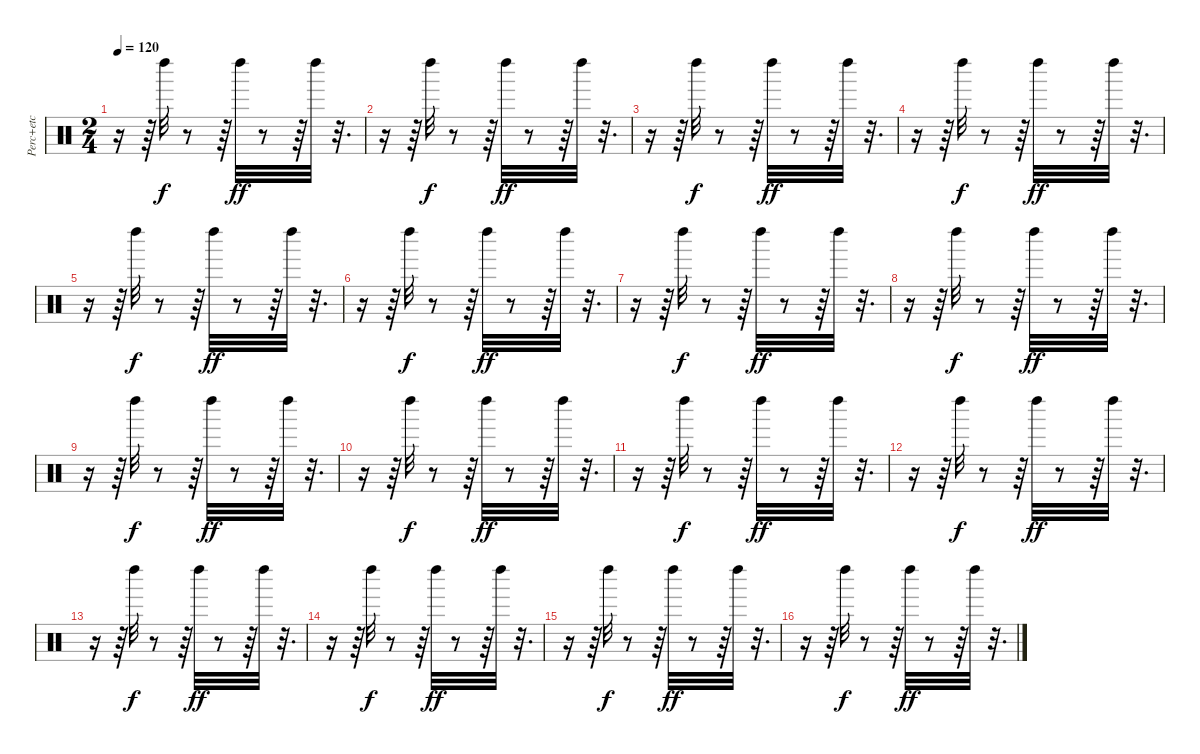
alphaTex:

\track ("Perc+etc" "Perc+etc") {instrument percussion}
\staff {score}
\articulation defaults
\ts (2 4)
\tempo 120
\clef neutral
\ks c
r.16{dy ff} r.64 "Left Maraca (hit)".32{dy f} r.8 r.64 "Left Maraca (hit)".32{dy ff} r.8 r.64 "Left Maraca (hit)".32 r.32{d} |
r.16 r.64 "Left Maraca (hit)".32{dy f} r.8 r.64 "Left Maraca (hit)".32{dy ff} r.8 r.64 "Left Maraca (hit)".32 r.32{d} |
r.16 r.64 "Left Maraca (hit)".32{dy f} r.8 r.64 "Left Maraca (hit)".32{dy ff} r.8 r.64 "Left Maraca (hit)".32 r.32{d} |
r.16 r.64 "Left Maraca (hit)".32{dy f} r.8 r.64 "Left Maraca (hit)".32{dy ff} r.8 r.64 "Left Maraca (hit)".32 r.32{d} |
r.16 r.64 "Left Maraca (hit)".32{dy f} r.8 r.64 "Left Maraca (hit)".32{dy ff} r.8 r.64 "Left Maraca (hit)".32 r.32{d} |
r.16 r.64 "Left Maraca (hit)".32{dy f} r.8 r.64 "Left Maraca (hit)".32{dy ff} r.8 r.64 "Left Maraca (hit)".32 r.32{d} |
r.16 r.64 "Left Maraca (hit)".32{dy f} r.8 r.64 "Left Maraca (hit)".32{dy ff} r.8 r.64 "Left Maraca (hit)".32 r.32{d} |
r.16 r.64 "Left Maraca (hit)".32{dy f} r.8 r.64 "Left Maraca (hit)".32{dy ff} r.8 r.64 "Left Maraca (hit)".32 r.32{d} |
r.16 r.64 "Left Maraca (hit)".32{dy f} r.8 r.64 "Left Maraca (hit)".32{dy ff} r.8 r.64 "Left Maraca (hit)".32 r.32{d} |
r.16 r.64 "Left Maraca (hit)".32{dy f} r.8 r.64 "Left Maraca (hit)".32{dy ff} r.8 r.64 "Left Maraca (hit)".32 r.32{d} |
r.16 r.64 "Left Maraca (hit)".32{dy f} r.8 r.64 "Left Maraca (hit)".32{dy ff} r.8 r.64 "Left Maraca (hit)".32 r.32{d} |
r.16 r.64 "Left Maraca (hit)".32{dy f} r.8 r.64 "Left Maraca (hit)".32{dy ff} r.8 r.64 "Left Maraca (hit)".32 r.32{d} |
r.16 r.64 "Left Maraca (hit)".32{dy f} r.8 r.64 "Left Maraca (hit)".32{dy ff} r.8 r.64 "Left Maraca (hit)".32 r.32{d} |
r.16 r.64 "Left Maraca (hit)".32{dy f} r.8 r.64 "Left Maraca (hit)".32{dy ff} r.8 r.64 "Left Maraca (hit)".32 r.32{d} |
r.16 r.64 "Left Maraca (hit)".32{dy f} r.8 r.64 "Left Maraca (hit)".32{dy ff} r.8 r.64 "Left Maraca (hit)".32 r.32{d} |
r.16 r.64 "Left Maraca (hit)".32{dy f} r.8 r.64 "Left Maraca (hit)".32{dy ff} r.8 r.64 "Left Maraca (hit)".32 r.32{d}
